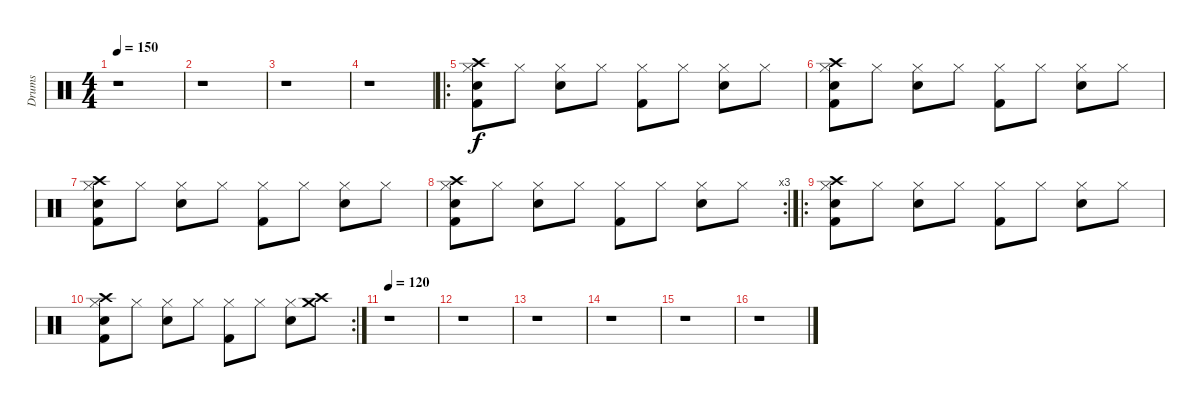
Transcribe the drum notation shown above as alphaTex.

\track ("Drums" "Drums") {instrument percussion}
\staff {score}
\articulation defaults
\ts (4 4)
\tempo 150
\clef neutral
\ks c
r.1{dy f} |
r.1 |
r.1 |
r.1 |
\ro
("Kick (hit) 2" "Snare (hit) 2" "Hi-Hat (closed)" "Crash high (hit)").8 "Hi-Hat (closed)".8 ("Snare (hit) 2" "Hi-Hat (closed)").8 "Hi-Hat (closed)".8 ("Kick (hit) 2" "Hi-Hat (closed)").8 "Hi-Hat (closed)".8 ("Snare (hit) 2" "Hi-Hat (closed)").8 "Hi-Hat (closed)".8 |
("Kick (hit) 2" "Snare (hit) 2" "Hi-Hat (closed)" "Crash high (hit)").8 "Hi-Hat (closed)".8 ("Snare (hit) 2" "Hi-Hat (closed)").8 "Hi-Hat (closed)".8 ("Kick (hit) 2" "Hi-Hat (closed)").8 "Hi-Hat (closed)".8 ("Snare (hit) 2" "Hi-Hat (closed)").8 "Hi-Hat (closed)".8 |
("Kick (hit) 2" "Snare (hit) 2" "Hi-Hat (closed)" "Crash high (hit)").8 "Hi-Hat (closed)".8 ("Snare (hit) 2" "Hi-Hat (closed)").8 "Hi-Hat (closed)".8 ("Kick (hit) 2" "Hi-Hat (closed)").8 "Hi-Hat (closed)".8 ("Snare (hit) 2" "Hi-Hat (closed)").8 "Hi-Hat (closed)".8 |
\rc 3
("Kick (hit) 2" "Snare (hit) 2" "Hi-Hat (closed)" "Crash high (hit)").8 "Hi-Hat (closed)".8 ("Snare (hit) 2" "Hi-Hat (closed)").8 "Hi-Hat (closed)".8 ("Kick (hit) 2" "Hi-Hat (closed)").8 "Hi-Hat (closed)".8 ("Snare (hit) 2" "Hi-Hat (closed)").8 "Hi-Hat (closed)".8 |
\ro
("Kick (hit) 2" "Snare (hit) 2" "Hi-Hat (closed)" "Crash high (hit)").8 "Hi-Hat (closed)".8 ("Snare (hit) 2" "Hi-Hat (closed)").8 "Hi-Hat (closed)".8 ("Kick (hit) 2" "Hi-Hat (closed)").8 "Hi-Hat (closed)".8 ("Snare (hit) 2" "Hi-Hat (closed)").8 "Hi-Hat (closed)".8 |
\rc 2
("Kick (hit) 2" "Snare (hit) 2" "Hi-Hat (closed)" "Crash high (hit)").8 "Hi-Hat (closed)".8 ("Snare (hit) 2" "Hi-Hat (closed)").8 "Hi-Hat (closed)".8 ("Kick (hit) 2" "Hi-Hat (closed)").8 "Hi-Hat (closed)".8 ("Snare (hit) 2" "Hi-Hat (closed)").8 ("Crash medium (hit)" "Crash high (hit)").8 |
\tempo 120
r.1 |
r.1 |
r.1 |
r.1 |
r.1 |
r.1
